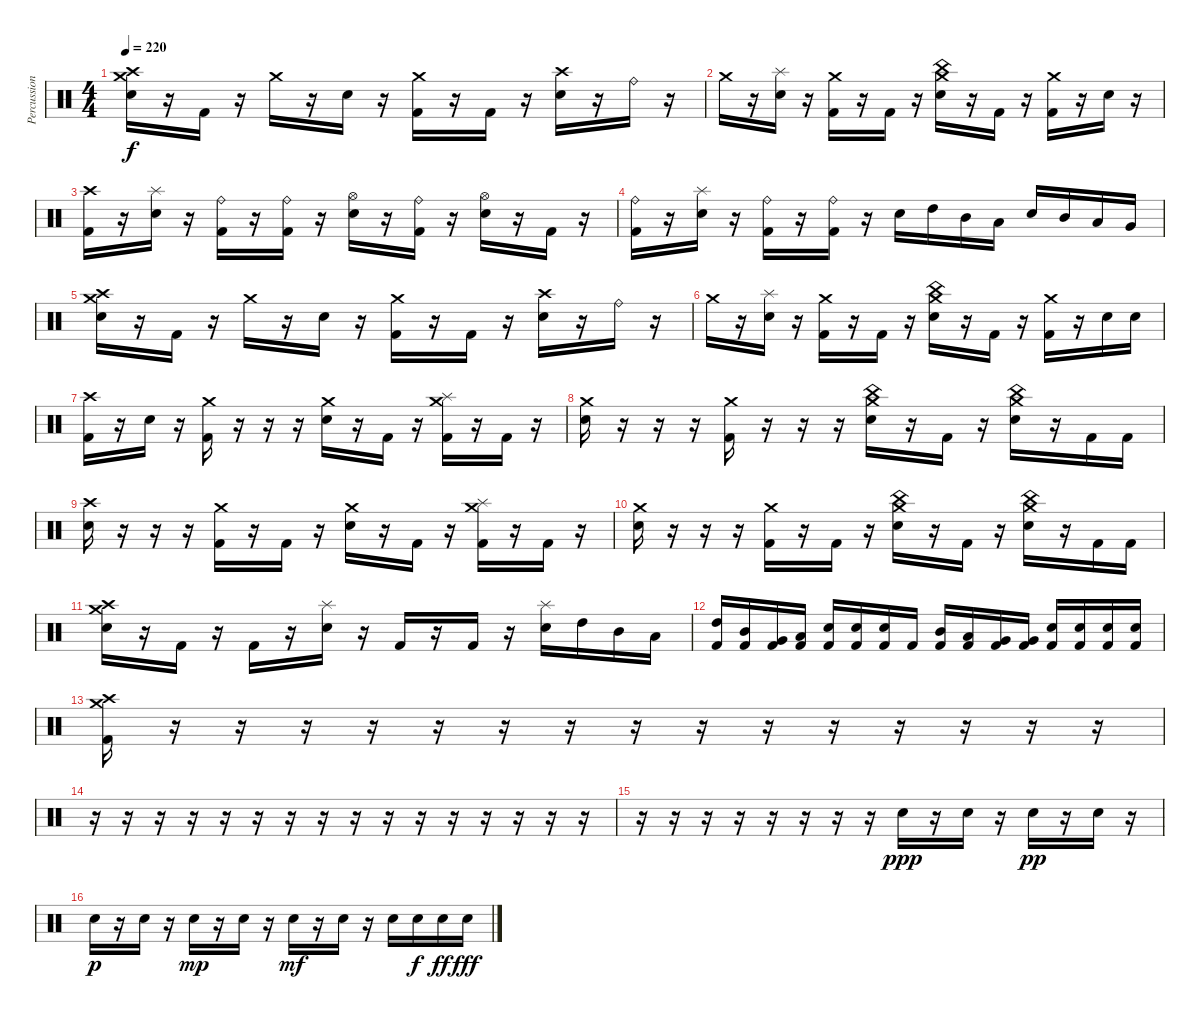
\track ("Percussion" "Percussion") {instrument percussion}
\staff {score}
\articulation defaults
\ts (4 4)
\tempo 220
\clef neutral
\ks c
("Crash high (hit)" "Crash medium (hit)" "Electric Snare (hit)").16{dy f} r.16 "Kick (hit) 2".16 r.16 "Crash medium (hit)".16 r.16 "Electric Snare (hit)".16 r.16 ("Crash medium (hit)" "Kick (hit) 2").16 r.16 "Kick (hit) 2".16 r.16 ("Crash high (hit)" "Electric Snare (hit)").16 r.16 "Ride (bell)".16 r.16 |
"Crash medium (hit)".16 r.16 ("Splash (hit)" "Electric Snare (hit)").16 r.16 ("Crash medium (hit)" "Kick (hit) 2").16 r.16 "Kick (hit) 2".16 r.16 ("Crash medium (hit)" "China (hit)" "Electric Snare (hit)").16 r.16 "Kick (hit) 2".16 r.16 ("Crash medium (hit)" "Kick (hit) 2").16 r.16 "Electric Snare (hit)".16 r.16 |
("Crash high (hit)" "Kick (hit) 2").16 r.16 ("Splash (hit)" "Electric Snare (hit)").16 r.16 ("Ride (bell)" "Kick (hit) 2").16 r.16 ("Ride (bell)" "Kick (hit) 2").16 r.16 ("Hi-Hat (open)" "Electric Snare (hit)").16 r.16 ("Ride (bell)" "Kick (hit) 2").16 r.16 ("Hi-Hat (open)" "Electric Snare (hit)").16 r.16 "Kick (hit) 2".16 r.16 |
("Ride (bell)" "Kick (hit) 2").16 r.16 ("Splash (hit)" "Electric Snare (hit)").16 r.16 ("Ride (bell)" "Kick (hit) 2").16 r.16 ("Ride (bell)" "Kick (hit) 2").16 r.16 "Electric Snare (hit)".16 "High Tom (hit)".16 "Mid Tom (hit)".16 "Low Tom (hit)".16 "Electric Snare (hit)".16 "Mid Tom (hit)".16 "Low Tom (hit)".16 "Very Low Tom (hit)".16 |
("Crash high (hit)" "Crash medium (hit)" "Electric Snare (hit)").16 r.16 "Kick (hit) 2".16 r.16 "Crash medium (hit)".16 r.16 "Electric Snare (hit)".16 r.16 ("Crash medium (hit)" "Kick (hit) 2").16 r.16 "Kick (hit) 2".16 r.16 ("Crash high (hit)" "Electric Snare (hit)").16 r.16 "Ride (bell)".16 r.16 |
"Crash medium (hit)".16 r.16 ("Splash (hit)" "Electric Snare (hit)").16 r.16 ("Crash medium (hit)" "Kick (hit) 2").16 r.16 "Kick (hit) 2".16 r.16 ("Crash medium (hit)" "China (hit)" "Electric Snare (hit)").16 r.16 "Kick (hit) 2".16 r.16 ("Crash medium (hit)" "Kick (hit) 2").16 r.16 "Electric Snare (hit)".16 "Electric Snare (hit)".16 |
("Crash high (hit)" "Kick (hit) 2").16 r.16 "Electric Snare (hit)".16 r.16 ("Crash medium (hit)" "Kick (hit) 2").16 r.16 r.16 r.16 ("Crash medium (hit)" "Electric Snare (hit)").16 r.16 "Kick (hit) 2".16 r.16 ("Crash medium (hit)" "Splash (hit)" "Kick (hit) 2").16 r.16 "Kick (hit) 2".16 r.16 |
("Crash medium (hit)" "Electric Snare (hit)").16 r.16 r.16 r.16 ("Crash medium (hit)" "Kick (hit) 2").16 r.16 r.16 r.16 ("Crash medium (hit)" "China (hit)" "Electric Snare (hit)").16 r.16 "Kick (hit) 2".16 r.16 ("Crash medium (hit)" "China (hit)" "Electric Snare (hit)").16 r.16 "Kick (hit) 2".16 "Kick (hit) 2".16 |
("Crash high (hit)" "Electric Snare (hit)").16 r.16 r.16 r.16 ("Crash medium (hit)" "Kick (hit) 2").16 r.16 "Kick (hit) 2".16 r.16 ("Crash medium (hit)" "Electric Snare (hit)").16 r.16 "Kick (hit) 2".16 r.16 ("Crash medium (hit)" "Splash (hit)" "Kick (hit) 2").16 r.16 "Kick (hit) 2".16 r.16 |
("Crash medium (hit)" "Electric Snare (hit)").16 r.16 r.16 r.16 ("Crash medium (hit)" "Kick (hit) 2").16 r.16 "Kick (hit) 2".16 r.16 ("Crash medium (hit)" "China (hit)" "Electric Snare (hit)").16 r.16 "Kick (hit) 2".16 r.16 ("Crash medium (hit)" "China (hit)" "Electric Snare (hit)").16 r.16 "Kick (hit) 2".16 "Kick (hit) 2".16 |
("Crash medium (hit)" "Crash high (hit)" "Electric Snare (hit)").16 r.16 "Kick (hit) 2".16 r.16 "Kick (hit) 2".16 r.16 ("Splash (hit)" "Electric Snare (hit)").16 r.16 "Kick (hit) 2".16 r.16 "Kick (hit) 2".16 r.16 ("Splash (hit)" "Electric Snare (hit)").16 "High Tom (hit)".16 "Mid Tom (hit)".16 "Low Tom (hit)".16 |
("High Tom (hit)" "Kick (hit) 2").16 ("Mid Tom (hit)" "Kick (hit) 2").16 ("Very Low Tom (hit)" "Kick (hit) 2").16 ("Low Floor Tom (hit)" "Kick (hit) 2").16 ("Electric Snare (hit)" "Kick (hit) 2").16 ("Electric Snare (hit)" "Kick (hit) 2").16 ("Electric Snare (hit)" "Kick (hit) 2").16 "Kick (hit) 2".16 ("Mid Tom (hit)" "Kick (hit) 2").16 ("Low Tom (hit)" "Kick (hit) 2").16 ("Very Low Tom (hit)" "Kick (hit) 2").16 ("Very Low Tom (hit)" "Kick (hit) 2").16 ("Electric Snare (hit)" "Kick (hit) 2").16 ("Electric Snare (hit)" "Kick (hit) 2").16 ("Electric Snare (hit)" "Kick (hit) 2").16 ("Electric Snare (hit)" "Kick (hit) 2").16 |
("Crash high (hit)" "Crash medium (hit)" "Kick (hit) 2").16 r.16 r.16 r.16 r.16 r.16 r.16 r.16 r.16 r.16 r.16 r.16 r.16 r.16 r.16 r.16 |
r.16 r.16 r.16 r.16 r.16 r.16 r.16 r.16 r.16 r.16 r.16 r.16 r.16 r.16 r.16 r.16 |
r.16 r.16 r.16 r.16 r.16 r.16 r.16 r.16 "Electric Snare (hit)".16{dy ppp} r.16 "Electric Snare (hit)".16 r.16 "Electric Snare (hit)".16{dy pp} r.16 "Electric Snare (hit)".16 r.16 |
"Electric Snare (hit)".16{dy p} r.16 "Electric Snare (hit)".16 r.16 "Electric Snare (hit)".16{dy mp} r.16 "Electric Snare (hit)".16 r.16 "Electric Snare (hit)".16{dy mf} r.16 "Electric Snare (hit)".16 r.16 "Electric Snare (hit)".16 "Electric Snare (hit)".16{dy f} "Electric Snare (hit)".16{dy ff} "Electric Snare (hit)".16{dy fff}
